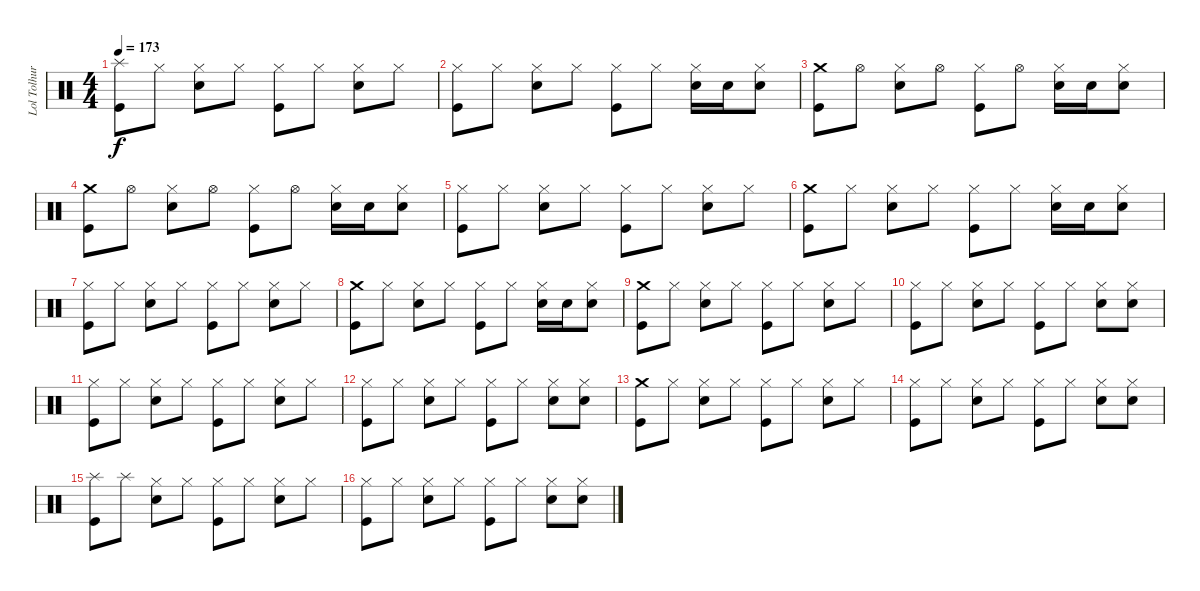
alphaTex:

\track ("Lol Tolhurst" "Lol Tolhur") {instrument percussion}
\staff {score}
\articulation defaults
\ts (4 4)
\tempo 173
\clef neutral
\ks c
("Splash (hit)" "Kick (hit)").8{dy f} "Hi-Hat (closed)".8 ("Hi-Hat (closed)" "Snare (hit) 2").8 "Hi-Hat (closed)".8 ("Hi-Hat (closed)" "Kick (hit)").8 "Hi-Hat (closed)".8 ("Hi-Hat (closed)" "Snare (hit) 2").8 "Hi-Hat (closed)".8 |
("Hi-Hat (closed)" "Kick (hit)").8 "Hi-Hat (closed)".8 ("Hi-Hat (closed)" "Snare (hit) 2").8 "Hi-Hat (closed)".8 ("Hi-Hat (closed)" "Kick (hit)").8 "Hi-Hat (closed)".8 ("Hi-Hat (closed)" "Snare (hit) 2").16 "Snare (hit) 2".16 ("Hi-Hat (closed)" "Snare (hit) 2").8 |
("Crash medium (hit)" "Kick (hit)").8 "Hi-Hat (open)".8 ("Hi-Hat (closed)" "Snare (hit) 2").8 "Hi-Hat (open)".8 ("Hi-Hat (closed)" "Kick (hit)").8 "Hi-Hat (open)".8 ("Hi-Hat (closed)" "Snare (hit) 2").16 "Snare (hit) 2".16 ("Hi-Hat (closed)" "Snare (hit) 2").8 |
("Crash medium (hit)" "Kick (hit)").8 "Hi-Hat (open)".8 ("Hi-Hat (closed)" "Snare (hit) 2").8 "Hi-Hat (open)".8 ("Hi-Hat (closed)" "Kick (hit)").8 "Hi-Hat (open)".8 ("Hi-Hat (closed)" "Snare (hit) 2").16 "Snare (hit) 2".16 ("Hi-Hat (closed)" "Snare (hit) 2").8 |
("Hi-Hat (closed)" "Kick (hit)").8 "Hi-Hat (closed)".8 ("Hi-Hat (closed)" "Snare (hit) 2").8 "Hi-Hat (closed)".8 ("Hi-Hat (closed)" "Kick (hit)").8 "Hi-Hat (closed)".8 ("Hi-Hat (closed)" "Snare (hit) 2").8 "Hi-Hat (closed)".8 |
("Crash medium (hit)" "Kick (hit)").8 "Hi-Hat (closed)".8 ("Hi-Hat (closed)" "Snare (hit) 2").8 "Hi-Hat (closed)".8 ("Hi-Hat (closed)" "Kick (hit)").8 "Hi-Hat (closed)".8 ("Hi-Hat (closed)" "Snare (hit) 2").16 "Snare (hit) 2".16 ("Hi-Hat (closed)" "Snare (hit) 2").8 |
("Hi-Hat (closed)" "Kick (hit)").8 "Hi-Hat (closed)".8 ("Hi-Hat (closed)" "Snare (hit) 2").8 "Hi-Hat (closed)".8 ("Hi-Hat (closed)" "Kick (hit)").8 "Hi-Hat (closed)".8 ("Hi-Hat (closed)" "Snare (hit) 2").8 "Hi-Hat (closed)".8 |
("Crash medium (hit)" "Kick (hit)").8 "Hi-Hat (closed)".8 ("Hi-Hat (closed)" "Snare (hit) 2").8 "Hi-Hat (closed)".8 ("Hi-Hat (closed)" "Kick (hit)").8 "Hi-Hat (closed)".8 ("Hi-Hat (closed)" "Snare (hit) 2").16 "Snare (hit) 2".16 ("Hi-Hat (closed)" "Snare (hit) 2").8 |
("Crash medium (hit)" "Kick (hit)").8 "Hi-Hat (closed)".8 ("Hi-Hat (closed)" "Snare (hit) 2").8 "Hi-Hat (closed)".8 ("Hi-Hat (closed)" "Kick (hit)").8 "Hi-Hat (closed)".8 ("Hi-Hat (closed)" "Snare (hit) 2").8 "Hi-Hat (closed)".8 |
("Hi-Hat (closed)" "Kick (hit)").8 "Hi-Hat (closed)".8 ("Hi-Hat (closed)" "Snare (hit) 2").8 "Hi-Hat (closed)".8 ("Hi-Hat (closed)" "Kick (hit)").8 "Hi-Hat (closed)".8 ("Hi-Hat (closed)" "Snare (hit) 2").8 ("Hi-Hat (closed)" "Snare (hit) 2").8 |
("Hi-Hat (closed)" "Kick (hit)").8 "Hi-Hat (closed)".8 ("Hi-Hat (closed)" "Snare (hit) 2").8 "Hi-Hat (closed)".8 ("Hi-Hat (closed)" "Kick (hit)").8 "Hi-Hat (closed)".8 ("Hi-Hat (closed)" "Snare (hit) 2").8 "Hi-Hat (closed)".8 |
("Hi-Hat (closed)" "Kick (hit)").8 "Hi-Hat (closed)".8 ("Hi-Hat (closed)" "Snare (hit) 2").8 "Hi-Hat (closed)".8 ("Hi-Hat (closed)" "Kick (hit)").8 "Hi-Hat (closed)".8 ("Hi-Hat (closed)" "Snare (hit) 2").8 ("Hi-Hat (closed)" "Snare (hit) 2").8 |
("Crash medium (hit)" "Kick (hit)").8 "Hi-Hat (closed)".8 ("Hi-Hat (closed)" "Snare (hit) 2").8 "Hi-Hat (closed)".8 ("Hi-Hat (closed)" "Kick (hit)").8 "Hi-Hat (closed)".8 ("Hi-Hat (closed)" "Snare (hit) 2").8 "Hi-Hat (closed)".8 |
("Hi-Hat (closed)" "Kick (hit)").8 "Hi-Hat (closed)".8 ("Hi-Hat (closed)" "Snare (hit) 2").8 "Hi-Hat (closed)".8 ("Hi-Hat (closed)" "Kick (hit)").8 "Hi-Hat (closed)".8 ("Hi-Hat (closed)" "Snare (hit) 2").8 ("Hi-Hat (closed)" "Snare (hit) 2").8 |
("Splash (hit)" "Kick (hit)").8 "Splash (hit)".8 ("Hi-Hat (closed)" "Snare (hit) 2").8 "Hi-Hat (closed)".8 ("Hi-Hat (closed)" "Kick (hit)").8 "Hi-Hat (closed)".8 ("Hi-Hat (closed)" "Snare (hit) 2").8 "Hi-Hat (closed)".8 |
("Hi-Hat (closed)" "Kick (hit)").8 "Hi-Hat (closed)".8 ("Hi-Hat (closed)" "Snare (hit) 2").8 "Hi-Hat (closed)".8 ("Hi-Hat (closed)" "Kick (hit)").8 "Hi-Hat (closed)".8 ("Hi-Hat (closed)" "Snare (hit) 2").8 ("Hi-Hat (closed)" "Snare (hit) 2").8
